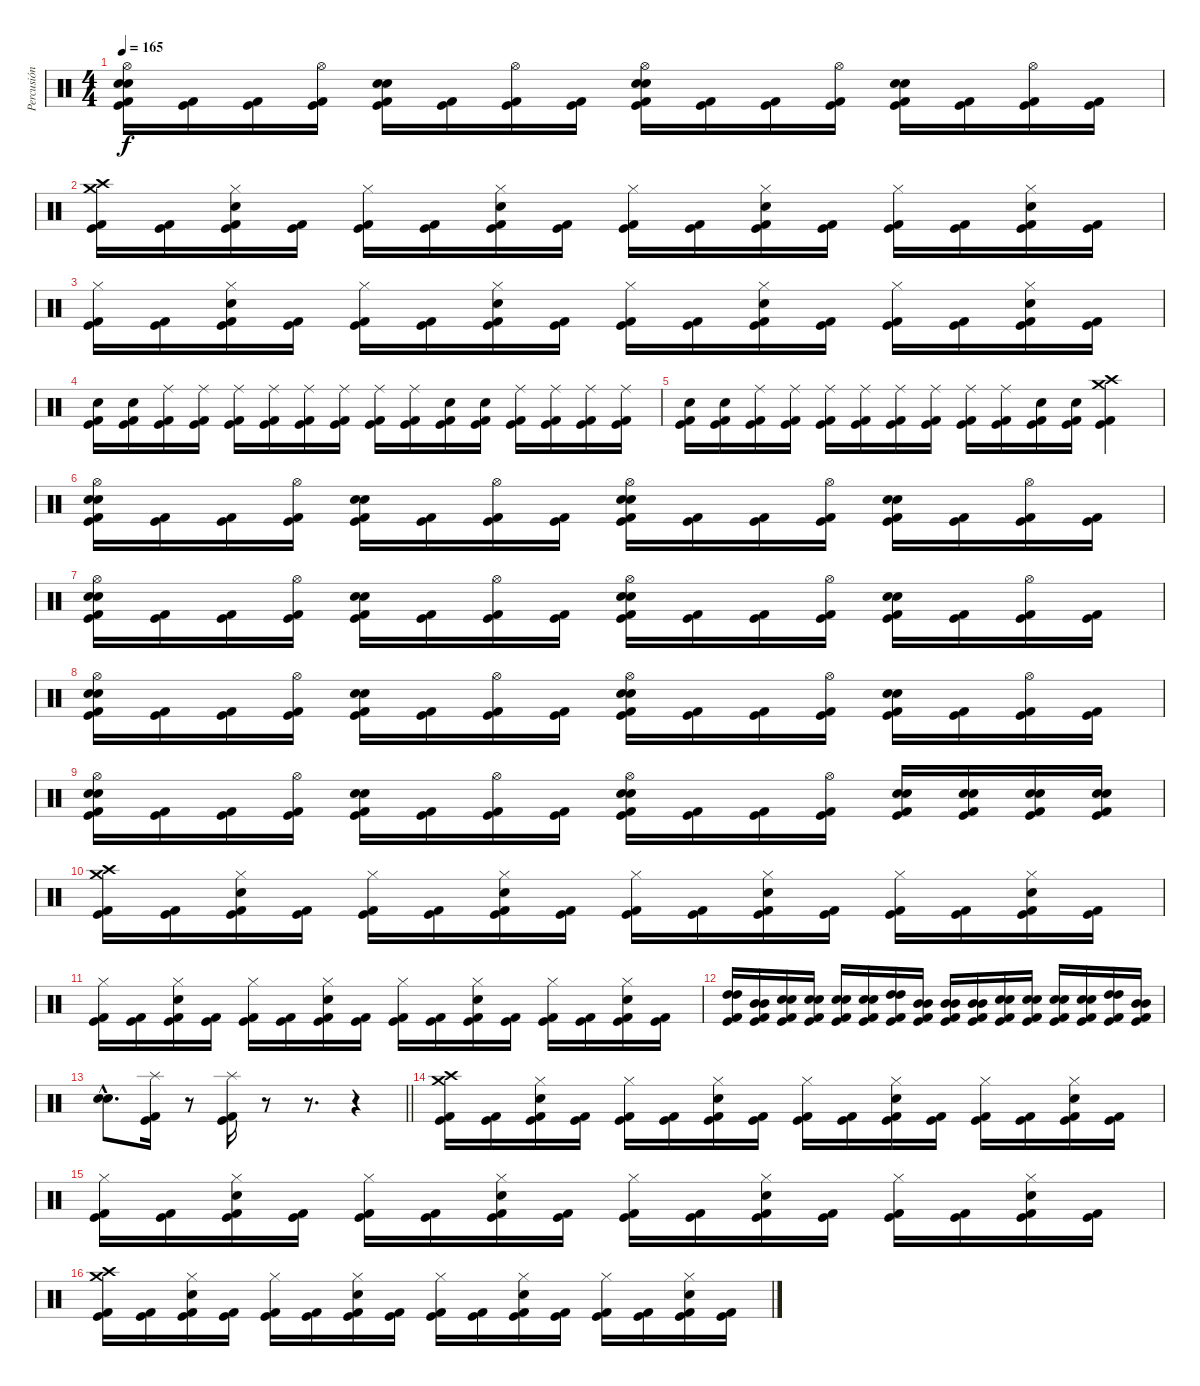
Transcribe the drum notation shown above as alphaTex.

\track ("Percusión" "Percusión") {instrument percussion}
\staff {score}
\articulation defaults
\ts (4 4)
\tempo 165
\clef neutral
\ks c
("Hi-Hat (open)" "Electric Snare (hit)" "Electric Snare (hit)" "Kick (hit)" "Kick (hit) 2").16{dy f} ("Kick (hit)" "Kick (hit) 2").16 ("Kick (hit)" "Kick (hit) 2").16 ("Hi-Hat (open)" "Kick (hit)" "Kick (hit) 2").16 ("Electric Snare (hit)" "Electric Snare (hit)" "Kick (hit)" "Kick (hit) 2").16 ("Kick (hit)" "Kick (hit) 2").16 ("Hi-Hat (open)" "Kick (hit)" "Kick (hit) 2").16 ("Kick (hit)" "Kick (hit) 2").16 ("Hi-Hat (open)" "Electric Snare (hit)" "Electric Snare (hit)" "Kick (hit)" "Kick (hit) 2").16 ("Kick (hit)" "Kick (hit) 2").16 ("Kick (hit)" "Kick (hit) 2").16 ("Hi-Hat (open)" "Kick (hit)" "Kick (hit) 2").16 ("Electric Snare (hit)" "Electric Snare (hit)" "Kick (hit)" "Kick (hit) 2").16 ("Kick (hit) 2" "Kick (hit)").16 ("Hi-Hat (open)" "Kick (hit) 2" "Kick (hit)").16 ("Kick (hit) 2" "Kick (hit)").16 |
("Crash medium (hit)" "Crash high (hit)" "Kick (hit) 2" "Kick (hit)").16 ("Kick (hit) 2" "Kick (hit)").16 ("Hi-Hat (closed)" "Electric Snare (hit)" "Kick (hit) 2" "Kick (hit)").16 ("Kick (hit) 2" "Kick (hit)").16 ("Hi-Hat (closed)" "Kick (hit) 2" "Kick (hit)").16 ("Kick (hit) 2" "Kick (hit)").16 ("Hi-Hat (closed)" "Electric Snare (hit)" "Kick (hit) 2" "Kick (hit)").16 ("Kick (hit) 2" "Kick (hit)").16 ("Hi-Hat (closed)" "Kick (hit) 2" "Kick (hit)").16 ("Kick (hit) 2" "Kick (hit)").16 ("Hi-Hat (closed)" "Electric Snare (hit)" "Kick (hit) 2" "Kick (hit)").16 ("Kick (hit) 2" "Kick (hit)").16 ("Hi-Hat (closed)" "Kick (hit) 2" "Kick (hit)").16 ("Kick (hit) 2" "Kick (hit)").16 ("Hi-Hat (closed)" "Electric Snare (hit)" "Kick (hit) 2" "Kick (hit)").16 ("Kick (hit) 2" "Kick (hit)").16 |
("Hi-Hat (closed)" "Kick (hit) 2" "Kick (hit)").16 ("Kick (hit) 2" "Kick (hit)").16 ("Hi-Hat (closed)" "Electric Snare (hit)" "Kick (hit) 2" "Kick (hit)").16 ("Kick (hit) 2" "Kick (hit)").16 ("Hi-Hat (closed)" "Kick (hit) 2" "Kick (hit)").16 ("Kick (hit) 2" "Kick (hit)").16 ("Hi-Hat (closed)" "Electric Snare (hit)" "Kick (hit) 2" "Kick (hit)").16 ("Kick (hit) 2" "Kick (hit)").16 ("Hi-Hat (closed)" "Kick (hit) 2" "Kick (hit)").16 ("Kick (hit) 2" "Kick (hit)").16 ("Hi-Hat (closed)" "Electric Snare (hit)" "Kick (hit) 2" "Kick (hit)").16 ("Kick (hit) 2" "Kick (hit)").16 ("Hi-Hat (closed)" "Kick (hit) 2" "Kick (hit)").16 ("Kick (hit) 2" "Kick (hit)").16 ("Hi-Hat (closed)" "Electric Snare (hit)" "Kick (hit) 2" "Kick (hit)").16 ("Kick (hit) 2" "Kick (hit)").16 |
("Electric Snare (hit)" "Kick (hit)" "Kick (hit) 2").16 ("Electric Snare (hit)" "Kick (hit)" "Kick (hit) 2").16 ("Ride (middle)" "Kick (hit)" "Kick (hit) 2").16 ("Ride (middle)" "Kick (hit)" "Kick (hit) 2").16 ("Ride (middle)" "Kick (hit)" "Kick (hit) 2").16 ("Ride (middle)" "Kick (hit)" "Kick (hit) 2").16 ("Ride (middle)" "Kick (hit)" "Kick (hit) 2").16 ("Ride (middle)" "Kick (hit)" "Kick (hit) 2").16 ("Ride (middle)" "Kick (hit)" "Kick (hit) 2").16 ("Ride (middle)" "Kick (hit)" "Kick (hit) 2").16 ("Electric Snare (hit)" "Kick (hit)" "Kick (hit) 2").16 ("Electric Snare (hit)" "Kick (hit)" "Kick (hit) 2").16 ("Ride (middle)" "Kick (hit)" "Kick (hit) 2").16 ("Ride (middle)" "Kick (hit)" "Kick (hit) 2").16 ("Ride (middle)" "Kick (hit)" "Kick (hit) 2").16 ("Ride (middle)" "Kick (hit)" "Kick (hit) 2").16 |
("Electric Snare (hit)" "Kick (hit)" "Kick (hit) 2").16 ("Electric Snare (hit)" "Kick (hit)" "Kick (hit) 2").16 ("Ride (middle)" "Kick (hit)" "Kick (hit) 2").16 ("Ride (middle)" "Kick (hit)" "Kick (hit) 2").16 ("Ride (middle)" "Kick (hit)" "Kick (hit) 2").16 ("Ride (middle)" "Kick (hit)" "Kick (hit) 2").16 ("Ride (middle)" "Kick (hit)" "Kick (hit) 2").16 ("Ride (middle)" "Kick (hit)" "Kick (hit) 2").16 ("Ride (middle)" "Kick (hit)" "Kick (hit) 2").16 ("Ride (middle)" "Kick (hit)" "Kick (hit) 2").16 ("Electric Snare (hit)" "Kick (hit)" "Kick (hit) 2").16 ("Electric Snare (hit)" "Kick (hit)" "Kick (hit) 2").16 ("Crash medium (hit)" "Crash high (hit)" "Kick (hit)" "Kick (hit) 2").4 |
("Hi-Hat (open)" "Electric Snare (hit)" "Electric Snare (hit)" "Kick (hit)" "Kick (hit) 2").16 ("Kick (hit)" "Kick (hit) 2").16 ("Kick (hit)" "Kick (hit) 2").16 ("Hi-Hat (open)" "Kick (hit)" "Kick (hit) 2").16 ("Electric Snare (hit)" "Electric Snare (hit)" "Kick (hit)" "Kick (hit) 2").16 ("Kick (hit)" "Kick (hit) 2").16 ("Hi-Hat (open)" "Kick (hit)" "Kick (hit) 2").16 ("Kick (hit)" "Kick (hit) 2").16 ("Hi-Hat (open)" "Electric Snare (hit)" "Electric Snare (hit)" "Kick (hit)" "Kick (hit) 2").16 ("Kick (hit)" "Kick (hit) 2").16 ("Kick (hit)" "Kick (hit) 2").16 ("Hi-Hat (open)" "Kick (hit)" "Kick (hit) 2").16 ("Electric Snare (hit)" "Electric Snare (hit)" "Kick (hit)" "Kick (hit) 2").16 ("Kick (hit) 2" "Kick (hit)").16 ("Hi-Hat (open)" "Kick (hit) 2" "Kick (hit)").16 ("Kick (hit) 2" "Kick (hit)").16 |
("Hi-Hat (open)" "Electric Snare (hit)" "Electric Snare (hit)" "Kick (hit)" "Kick (hit) 2").16 ("Kick (hit)" "Kick (hit) 2").16 ("Kick (hit)" "Kick (hit) 2").16 ("Hi-Hat (open)" "Kick (hit)" "Kick (hit) 2").16 ("Electric Snare (hit)" "Electric Snare (hit)" "Kick (hit)" "Kick (hit) 2").16 ("Kick (hit)" "Kick (hit) 2").16 ("Hi-Hat (open)" "Kick (hit)" "Kick (hit) 2").16 ("Kick (hit)" "Kick (hit) 2").16 ("Hi-Hat (open)" "Electric Snare (hit)" "Electric Snare (hit)" "Kick (hit)" "Kick (hit) 2").16 ("Kick (hit)" "Kick (hit) 2").16 ("Kick (hit)" "Kick (hit) 2").16 ("Hi-Hat (open)" "Kick (hit)" "Kick (hit) 2").16 ("Electric Snare (hit)" "Electric Snare (hit)" "Kick (hit)" "Kick (hit) 2").16 ("Kick (hit) 2" "Kick (hit)").16 ("Hi-Hat (open)" "Kick (hit) 2" "Kick (hit)").16 ("Kick (hit) 2" "Kick (hit)").16 |
("Hi-Hat (open)" "Electric Snare (hit)" "Electric Snare (hit)" "Kick (hit)" "Kick (hit) 2").16 ("Kick (hit)" "Kick (hit) 2").16 ("Kick (hit)" "Kick (hit) 2").16 ("Hi-Hat (open)" "Kick (hit)" "Kick (hit) 2").16 ("Electric Snare (hit)" "Electric Snare (hit)" "Kick (hit)" "Kick (hit) 2").16 ("Kick (hit)" "Kick (hit) 2").16 ("Hi-Hat (open)" "Kick (hit)" "Kick (hit) 2").16 ("Kick (hit)" "Kick (hit) 2").16 ("Hi-Hat (open)" "Electric Snare (hit)" "Electric Snare (hit)" "Kick (hit)" "Kick (hit) 2").16 ("Kick (hit)" "Kick (hit) 2").16 ("Kick (hit)" "Kick (hit) 2").16 ("Hi-Hat (open)" "Kick (hit)" "Kick (hit) 2").16 ("Electric Snare (hit)" "Electric Snare (hit)" "Kick (hit)" "Kick (hit) 2").16 ("Kick (hit) 2" "Kick (hit)").16 ("Hi-Hat (open)" "Kick (hit) 2" "Kick (hit)").16 ("Kick (hit) 2" "Kick (hit)").16 |
("Hi-Hat (open)" "Electric Snare (hit)" "Electric Snare (hit)" "Kick (hit)" "Kick (hit) 2").16 ("Kick (hit)" "Kick (hit) 2").16 ("Kick (hit)" "Kick (hit) 2").16 ("Hi-Hat (open)" "Kick (hit)" "Kick (hit) 2").16 ("Electric Snare (hit)" "Electric Snare (hit)" "Kick (hit)" "Kick (hit) 2").16 ("Kick (hit)" "Kick (hit) 2").16 ("Hi-Hat (open)" "Kick (hit)" "Kick (hit) 2").16 ("Kick (hit)" "Kick (hit) 2").16 ("Hi-Hat (open)" "Electric Snare (hit)" "Electric Snare (hit)" "Kick (hit)" "Kick (hit) 2").16 ("Kick (hit)" "Kick (hit) 2").16 ("Kick (hit)" "Kick (hit) 2").16 ("Hi-Hat (open)" "Kick (hit)" "Kick (hit) 2").16 ("Electric Snare (hit)" "Electric Snare (hit)" "Kick (hit)" "Kick (hit) 2").16 ("Electric Snare (hit)" "Electric Snare (hit)" "Kick (hit) 2" "Kick (hit)").16 ("Electric Snare (hit)" "Electric Snare (hit)" "Kick (hit) 2" "Kick (hit)").16 ("Electric Snare (hit)" "Electric Snare (hit)" "Kick (hit) 2" "Kick (hit)").16 |
("Crash medium (hit)" "Crash high (hit)" "Kick (hit) 2" "Kick (hit)").16 ("Kick (hit) 2" "Kick (hit)").16 ("Hi-Hat (closed)" "Electric Snare (hit)" "Kick (hit) 2" "Kick (hit)").16 ("Kick (hit) 2" "Kick (hit)").16 ("Hi-Hat (closed)" "Kick (hit) 2" "Kick (hit)").16 ("Kick (hit) 2" "Kick (hit)").16 ("Hi-Hat (closed)" "Electric Snare (hit)" "Kick (hit) 2" "Kick (hit)").16 ("Kick (hit) 2" "Kick (hit)").16 ("Hi-Hat (closed)" "Kick (hit) 2" "Kick (hit)").16 ("Kick (hit) 2" "Kick (hit)").16 ("Hi-Hat (closed)" "Electric Snare (hit)" "Kick (hit) 2" "Kick (hit)").16 ("Kick (hit) 2" "Kick (hit)").16 ("Hi-Hat (closed)" "Kick (hit) 2" "Kick (hit)").16 ("Kick (hit) 2" "Kick (hit)").16 ("Hi-Hat (closed)" "Electric Snare (hit)" "Kick (hit) 2" "Kick (hit)").16 ("Kick (hit) 2" "Kick (hit)").16 |
("Hi-Hat (closed)" "Kick (hit) 2" "Kick (hit)").16 ("Kick (hit) 2" "Kick (hit)").16 ("Hi-Hat (closed)" "Electric Snare (hit)" "Kick (hit) 2" "Kick (hit)").16 ("Kick (hit) 2" "Kick (hit)").16 ("Hi-Hat (closed)" "Kick (hit) 2" "Kick (hit)").16 ("Kick (hit) 2" "Kick (hit)").16 ("Hi-Hat (closed)" "Electric Snare (hit)" "Kick (hit) 2" "Kick (hit)").16 ("Kick (hit) 2" "Kick (hit)").16 ("Hi-Hat (closed)" "Kick (hit) 2" "Kick (hit)").16 ("Kick (hit) 2" "Kick (hit)").16 ("Hi-Hat (closed)" "Electric Snare (hit)" "Kick (hit) 2" "Kick (hit)").16 ("Kick (hit) 2" "Kick (hit)").16 ("Hi-Hat (closed)" "Kick (hit) 2" "Kick (hit)").16 ("Kick (hit) 2" "Kick (hit)").16 ("Hi-Hat (closed)" "Electric Snare (hit)" "Kick (hit) 2" "Kick (hit)").16 ("Kick (hit) 2" "Kick (hit)").16 |
("High Tom (hit)" "High Tom (hit)" "Kick (hit)" "Kick (hit) 2").16 ("Mid Tom (hit)" "Mid Tom (hit)" "Kick (hit)" "Kick (hit) 2").16 ("Electric Snare (hit)" "Electric Snare (hit)" "Kick (hit)" "Kick (hit) 2").16 ("Electric Snare (hit)" "Electric Snare (hit)" "Kick (hit)" "Kick (hit) 2").16 ("Electric Snare (hit)" "Electric Snare (hit)" "Kick (hit)" "Kick (hit) 2").16 ("Electric Snare (hit)" "Electric Snare (hit)" "Kick (hit)" "Kick (hit) 2").16 ("High Tom (hit)" "High Tom (hit)" "Kick (hit)" "Kick (hit) 2").16 ("Mid Tom (hit)" "Mid Tom (hit)" "Kick (hit)" "Kick (hit) 2").16 ("Mid Tom (hit)" "Mid Tom (hit)" "Kick (hit)" "Kick (hit) 2").16 ("Mid Tom (hit)" "Mid Tom (hit)" "Kick (hit)" "Kick (hit) 2").16 ("Electric Snare (hit)" "Electric Snare (hit)" "Kick (hit)" "Kick (hit) 2").16 ("Electric Snare (hit)" "Electric Snare (hit)" "Kick (hit)" "Kick (hit) 2").16 ("Electric Snare (hit)" "Electric Snare (hit)" "Kick (hit)" "Kick (hit) 2").16 ("Electric Snare (hit)" "Electric Snare (hit)" "Kick (hit) 2" "Kick (hit)").16 ("High Tom (hit)" "High Tom (hit)" "Kick (hit) 2" "Kick (hit)").16 ("Mid Tom (hit)" "Mid Tom (hit)" "Kick (hit) 2" "Kick (hit)").16 |
\barLineRight lightlight
("Electric Snare (hit)"{hac} "Electric Snare (hit)"{hac}).8{d bd 240} ("Splash (hit)" "Kick (hit) 2" "Kick (hit)").16 r.8 ("Splash (hit)" "Kick (hit)" "Kick (hit) 2").16 r.8 r.8{d} r.4 |
("Crash medium (hit)" "Crash high (hit)" "Kick (hit) 2" "Kick (hit)").16 ("Kick (hit) 2" "Kick (hit)").16 ("Hi-Hat (closed)" "Electric Snare (hit)" "Kick (hit) 2" "Kick (hit)").16 ("Kick (hit) 2" "Kick (hit)").16 ("Hi-Hat (closed)" "Kick (hit) 2" "Kick (hit)").16 ("Kick (hit) 2" "Kick (hit)").16 ("Hi-Hat (closed)" "Electric Snare (hit)" "Kick (hit) 2" "Kick (hit)").16 ("Kick (hit) 2" "Kick (hit)").16 ("Hi-Hat (closed)" "Kick (hit) 2" "Kick (hit)").16 ("Kick (hit) 2" "Kick (hit)").16 ("Hi-Hat (closed)" "Electric Snare (hit)" "Kick (hit) 2" "Kick (hit)").16 ("Kick (hit) 2" "Kick (hit)").16 ("Hi-Hat (closed)" "Kick (hit) 2" "Kick (hit)").16 ("Kick (hit) 2" "Kick (hit)").16 ("Hi-Hat (closed)" "Electric Snare (hit)" "Kick (hit) 2" "Kick (hit)").16 ("Kick (hit) 2" "Kick (hit)").16 |
("Hi-Hat (closed)" "Kick (hit) 2" "Kick (hit)").16 ("Kick (hit) 2" "Kick (hit)").16 ("Hi-Hat (closed)" "Electric Snare (hit)" "Kick (hit) 2" "Kick (hit)").16 ("Kick (hit) 2" "Kick (hit)").16 ("Hi-Hat (closed)" "Kick (hit) 2" "Kick (hit)").16 ("Kick (hit) 2" "Kick (hit)").16 ("Hi-Hat (closed)" "Electric Snare (hit)" "Kick (hit) 2" "Kick (hit)").16 ("Kick (hit) 2" "Kick (hit)").16 ("Hi-Hat (closed)" "Kick (hit) 2" "Kick (hit)").16 ("Kick (hit) 2" "Kick (hit)").16 ("Hi-Hat (closed)" "Electric Snare (hit)" "Kick (hit) 2" "Kick (hit)").16 ("Kick (hit) 2" "Kick (hit)").16 ("Hi-Hat (closed)" "Kick (hit) 2" "Kick (hit)").16 ("Kick (hit) 2" "Kick (hit)").16 ("Hi-Hat (closed)" "Electric Snare (hit)" "Kick (hit) 2" "Kick (hit)").16 ("Kick (hit) 2" "Kick (hit)").16 |
("Crash medium (hit)" "Crash high (hit)" "Kick (hit) 2" "Kick (hit)").16 ("Kick (hit) 2" "Kick (hit)").16 ("Hi-Hat (closed)" "Electric Snare (hit)" "Kick (hit) 2" "Kick (hit)").16 ("Kick (hit) 2" "Kick (hit)").16 ("Hi-Hat (closed)" "Kick (hit) 2" "Kick (hit)").16 ("Kick (hit) 2" "Kick (hit)").16 ("Hi-Hat (closed)" "Electric Snare (hit)" "Kick (hit) 2" "Kick (hit)").16 ("Kick (hit) 2" "Kick (hit)").16 ("Hi-Hat (closed)" "Kick (hit) 2" "Kick (hit)").16 ("Kick (hit) 2" "Kick (hit)").16 ("Hi-Hat (closed)" "Electric Snare (hit)" "Kick (hit) 2" "Kick (hit)").16 ("Kick (hit) 2" "Kick (hit)").16 ("Hi-Hat (closed)" "Kick (hit) 2" "Kick (hit)").16 ("Kick (hit) 2" "Kick (hit)").16 ("Hi-Hat (closed)" "Electric Snare (hit)" "Kick (hit) 2" "Kick (hit)").16 ("Kick (hit) 2" "Kick (hit)").16
